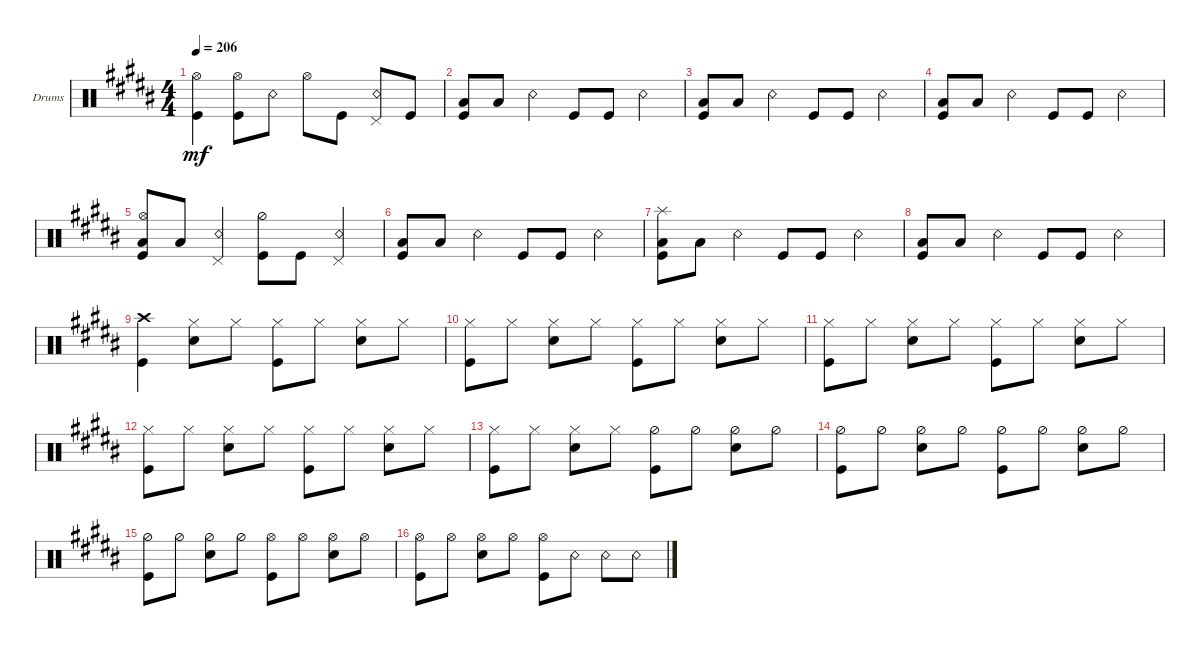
\defaultSystemsLayout 4
\bracketExtendMode groupsimilarinstruments
\firstSystemTrackNameOrientation horizontal
\otherSystemsTrackNameOrientation horizontal
\track ("Drums" "Drums") {instrument percussion}
\staff {score}
\articulation defaults
\ts (4 4)
\tempo 206
\clef neutral
\ks b
("Kick (hit)" "Hi-Hat (open)").4{dy mf} ("Kick (hit)" "Hi-Hat (open)").8 "Snare (rim shot)".8 "Hi-Hat (open)".8 "Kick (hit)".8 ("Snare (rim shot)" "Pedal Hi-Hat (hit)").8 "Kick (hit)".8 |
("Kick (hit)" "Low Tom (hit)").8 "Low Tom (hit)".8 "Snare (rim shot)".4 "Kick (hit)".8 "Kick (hit)".8 "Snare (rim shot)".4 |
("Kick (hit)" "Low Tom (hit)").8 "Low Tom (hit)".8 "Snare (rim shot)".4 "Kick (hit)".8 "Kick (hit)".8 "Snare (rim shot)".4 |
("Kick (hit)" "Low Tom (hit)").8 "Low Tom (hit)".8 "Snare (rim shot)".4 "Kick (hit)".8 "Kick (hit)".8 "Snare (rim shot)".4 |
("Kick (hit)" "Low Tom (hit)" "Hi-Hat (open)").8 "Low Tom (hit)".8 ("Snare (rim shot)" "Pedal Hi-Hat (hit)").4 ("Kick (hit)" "Hi-Hat (half)").8 "Kick (hit)".8 ("Snare (rim shot)" "Pedal Hi-Hat (hit)").4 |
("Kick (hit)" "Low Tom (hit)").8 "Low Tom (hit)".8 "Snare (rim shot)".4 "Kick (hit)".8 "Kick (hit)".8 "Snare (rim shot)".4 |
("Kick (hit)" "Low Tom (hit)" "Splash (hit)").8 "Low Tom (hit)".8 "Snare (rim shot)".4 "Kick (hit)".8 "Kick (hit)".8 "Snare (rim shot)".4 |
("Kick (hit)" "Low Tom (hit)").8 "Low Tom (hit)".8 "Snare (rim shot)".4 "Kick (hit)".8 "Kick (hit)".8 "Snare (rim shot)".4 |
("Kick (hit)" "Crash high (hit)").4 ("Hi-Hat (closed)" "Snare (hit) 2").8 "Hi-Hat (closed)".8 ("Hi-Hat (closed)" "Kick (hit)").8 "Hi-Hat (closed)".8 ("Hi-Hat (closed)" "Snare (hit) 2").8 "Hi-Hat (closed)".8 |
("Hi-Hat (closed)" "Kick (hit)").8 "Hi-Hat (closed)".8 ("Hi-Hat (closed)" "Snare (hit) 2").8 "Hi-Hat (closed)".8 ("Hi-Hat (closed)" "Kick (hit)").8 "Hi-Hat (closed)".8 ("Hi-Hat (closed)" "Snare (hit) 2").8 "Hi-Hat (closed)".8 |
("Hi-Hat (closed)" "Kick (hit)").8 "Hi-Hat (closed)".8 ("Hi-Hat (closed)" "Snare (hit) 2").8 "Hi-Hat (closed)".8 ("Hi-Hat (closed)" "Kick (hit)").8 "Hi-Hat (closed)".8 ("Hi-Hat (closed)" "Snare (hit) 2").8 "Hi-Hat (closed)".8 |
("Hi-Hat (closed)" "Kick (hit)").8 "Hi-Hat (closed)".8 ("Hi-Hat (closed)" "Snare (hit) 2").8 "Hi-Hat (closed)".8 ("Hi-Hat (closed)" "Kick (hit)").8 "Hi-Hat (closed)".8 ("Hi-Hat (closed)" "Snare (hit) 2").8 "Hi-Hat (closed)".8 |
("Hi-Hat (closed)" "Kick (hit)").8 "Hi-Hat (closed)".8 ("Hi-Hat (closed)" "Snare (hit) 2").8 "Hi-Hat (closed)".8 ("Hi-Hat (half)" "Kick (hit)").8 "Hi-Hat (half)".8 ("Hi-Hat (half)" "Snare (hit) 2").8 "Hi-Hat (half)".8 |
("Hi-Hat (half)" "Kick (hit)").8 "Hi-Hat (half)".8 ("Hi-Hat (half)" "Snare (hit) 2").8 "Hi-Hat (half)".8 ("Hi-Hat (half)" "Kick (hit)").8 "Hi-Hat (half)".8 ("Hi-Hat (half)" "Snare (hit) 2").8 "Hi-Hat (half)".8 |
("Hi-Hat (half)" "Kick (hit)").8 "Hi-Hat (half)".8 ("Hi-Hat (half)" "Snare (hit) 2").8 "Hi-Hat (half)".8 ("Hi-Hat (open)" "Kick (hit)").8 "Hi-Hat (open)".8 ("Hi-Hat (open)" "Snare (hit) 2").8 "Hi-Hat (open)".8 |
("Hi-Hat (open)" "Kick (hit)").8 "Hi-Hat (open)".8 ("Hi-Hat (open)" "Snare (hit) 2").8 "Hi-Hat (open)".8 ("Hi-Hat (open)" "Kick (hit)").8 "Snare (rim shot)".8 "Snare (rim shot)".8 "Snare (rim shot)".8
